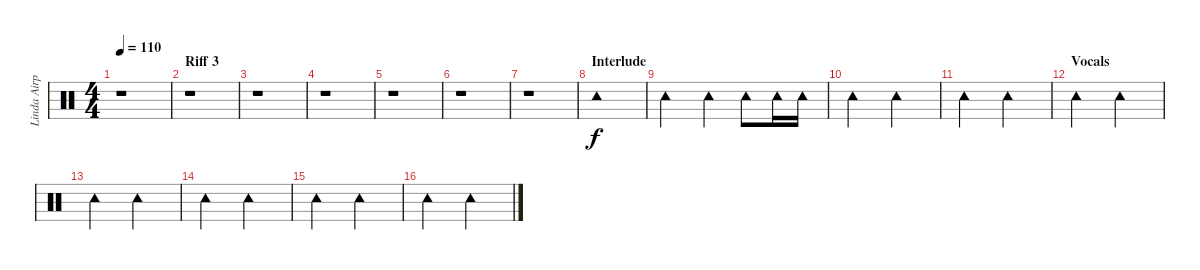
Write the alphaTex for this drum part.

\track ("Linda Airplane" "Linda Airp") {instrument percussion}
\staff {score}
\articulation defaults
\ts (4 4)
\tempo 110
\clef neutral
\ks c
r.1{dy f} |
\section ("" "Riff 3")
r.1 |
r.1 |
r.1 |
r.1 |
r.1 |
r.1 |
\section ("" "Interlude")
"Tambourine (hit)".1 |
"Tambourine (hit)".2 "Tambourine (hit)".4 "Tambourine (hit)".8 "Tambourine (hit)".16 "Tambourine (hit)".16 |
"Tambourine (hit)".2 "Tambourine (hit)".2 |
"Tambourine (hit)".2 "Tambourine (hit)".2 |
\section ("" "Vocals")
"Tambourine (hit)".2 "Tambourine (hit)".2 |
"Tambourine (hit)".2 "Tambourine (hit)".2 |
"Tambourine (hit)".2 "Tambourine (hit)".2 |
"Tambourine (hit)".2 "Tambourine (hit)".2 |
"Tambourine (hit)".2 "Tambourine (hit)".2
